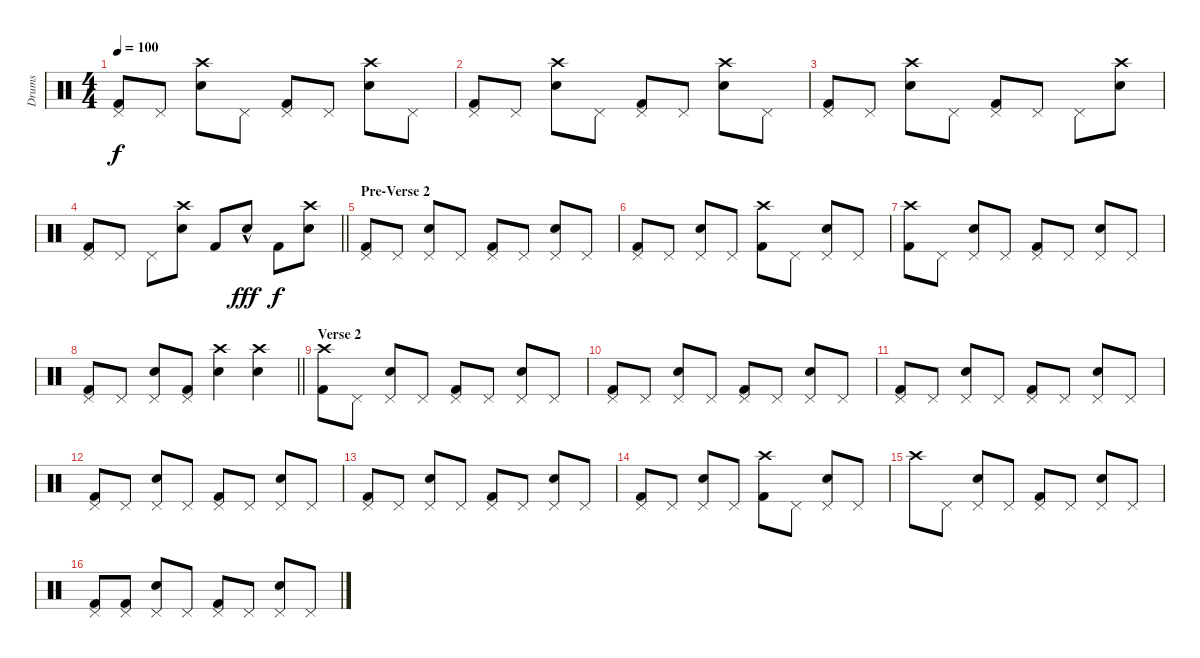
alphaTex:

\track ("Drums" "Drums") {instrument percussion}
\staff {score}
\articulation defaults
\ts (4 4)
\tempo 100
\clef neutral
\ks c
("Pedal Hi-Hat (hit)" "Kick (hit) 2").8{dy f} "Pedal Hi-Hat (hit)".8 ("Crash high (hit)" "Electric Snare (hit)").8 "Pedal Hi-Hat (hit)".8 ("Pedal Hi-Hat (hit)" "Kick (hit) 2").8 "Pedal Hi-Hat (hit)".8 ("Crash high (hit)" "Electric Snare (hit)").8 "Pedal Hi-Hat (hit)".8 |
("Pedal Hi-Hat (hit)" "Kick (hit) 2").8 "Pedal Hi-Hat (hit)".8 ("Crash high (hit)" "Electric Snare (hit)").8 "Pedal Hi-Hat (hit)".8 ("Pedal Hi-Hat (hit)" "Kick (hit) 2").8 "Pedal Hi-Hat (hit)".8 ("Crash high (hit)" "Electric Snare (hit)").8 "Pedal Hi-Hat (hit)".8 |
("Pedal Hi-Hat (hit)" "Kick (hit) 2").8 "Pedal Hi-Hat (hit)".8 ("Crash high (hit)" "Electric Snare (hit)").8 "Pedal Hi-Hat (hit)".8 ("Pedal Hi-Hat (hit)" "Kick (hit) 2").8 "Pedal Hi-Hat (hit)".8 "Pedal Hi-Hat (hit)".8 ("Crash high (hit)" "Electric Snare (hit)").8 |
\barLineRight lightlight
("Pedal Hi-Hat (hit)" "Kick (hit) 2").8 "Pedal Hi-Hat (hit)".8 "Pedal Hi-Hat (hit)".8 ("Crash high (hit)" "Electric Snare (hit)").8 "Kick (hit) 2".8 "Electric Snare (hit)"{hac}.8{dy fff} "Kick (hit) 2".8{dy f} ("Crash high (hit)" "Electric Snare (hit)").8 |
\section ("" "Pre-Verse 2")
("Pedal Hi-Hat (hit)" "Kick (hit) 2").8 "Pedal Hi-Hat (hit)".8 ("Pedal Hi-Hat (hit)" "Electric Snare (hit)").8 "Pedal Hi-Hat (hit)".8 ("Pedal Hi-Hat (hit)" "Kick (hit) 2").8 "Pedal Hi-Hat (hit)".8 ("Pedal Hi-Hat (hit)" "Electric Snare (hit)").8 "Pedal Hi-Hat (hit)".8 |
("Pedal Hi-Hat (hit)" "Kick (hit) 2").8 "Pedal Hi-Hat (hit)".8 ("Pedal Hi-Hat (hit)" "Electric Snare (hit)").8 "Pedal Hi-Hat (hit)".8 ("Crash high (hit)" "Kick (hit) 2").8 "Pedal Hi-Hat (hit)".8 ("Pedal Hi-Hat (hit)" "Electric Snare (hit)").8 "Pedal Hi-Hat (hit)".8 |
("Crash high (hit)" "Kick (hit) 2").8 "Pedal Hi-Hat (hit)".8 ("Pedal Hi-Hat (hit)" "Electric Snare (hit)").8 "Pedal Hi-Hat (hit)".8 ("Pedal Hi-Hat (hit)" "Kick (hit) 2").8 "Pedal Hi-Hat (hit)".8 ("Pedal Hi-Hat (hit)" "Electric Snare (hit)").8 "Pedal Hi-Hat (hit)".8 |
\barLineRight lightlight
("Pedal Hi-Hat (hit)" "Kick (hit) 2").8 "Pedal Hi-Hat (hit)".8 ("Pedal Hi-Hat (hit)" "Electric Snare (hit)").8 ("Pedal Hi-Hat (hit)" "Kick (hit) 2").8 ("Crash high (hit)" "Electric Snare (hit)").4 ("Crash high (hit)" "Electric Snare (hit)").4 |
\section ("" "Verse 2")
("Crash high (hit)" "Kick (hit) 2").8 "Pedal Hi-Hat (hit)".8 ("Pedal Hi-Hat (hit)" "Electric Snare (hit)").8 "Pedal Hi-Hat (hit)".8 ("Pedal Hi-Hat (hit)" "Kick (hit) 2").8 "Pedal Hi-Hat (hit)".8 ("Pedal Hi-Hat (hit)" "Electric Snare (hit)").8 "Pedal Hi-Hat (hit)".8 |
("Pedal Hi-Hat (hit)" "Kick (hit) 2").8 "Pedal Hi-Hat (hit)".8 ("Pedal Hi-Hat (hit)" "Electric Snare (hit)").8 "Pedal Hi-Hat (hit)".8 ("Pedal Hi-Hat (hit)" "Kick (hit) 2").8 "Pedal Hi-Hat (hit)".8 ("Pedal Hi-Hat (hit)" "Electric Snare (hit)").8 "Pedal Hi-Hat (hit)".8 |
("Pedal Hi-Hat (hit)" "Kick (hit) 2").8 "Pedal Hi-Hat (hit)".8 ("Pedal Hi-Hat (hit)" "Electric Snare (hit)").8 "Pedal Hi-Hat (hit)".8 ("Pedal Hi-Hat (hit)" "Kick (hit) 2").8 "Pedal Hi-Hat (hit)".8 ("Pedal Hi-Hat (hit)" "Electric Snare (hit)").8 "Pedal Hi-Hat (hit)".8 |
("Pedal Hi-Hat (hit)" "Kick (hit) 2").8 "Pedal Hi-Hat (hit)".8 ("Pedal Hi-Hat (hit)" "Electric Snare (hit)").8 "Pedal Hi-Hat (hit)".8 ("Pedal Hi-Hat (hit)" "Kick (hit) 2").8 "Pedal Hi-Hat (hit)".8 ("Pedal Hi-Hat (hit)" "Electric Snare (hit)").8 "Pedal Hi-Hat (hit)".8 |
("Pedal Hi-Hat (hit)" "Kick (hit) 2").8 "Pedal Hi-Hat (hit)".8 ("Pedal Hi-Hat (hit)" "Electric Snare (hit)").8 "Pedal Hi-Hat (hit)".8 ("Pedal Hi-Hat (hit)" "Kick (hit) 2").8 "Pedal Hi-Hat (hit)".8 ("Pedal Hi-Hat (hit)" "Electric Snare (hit)").8 "Pedal Hi-Hat (hit)".8 |
("Pedal Hi-Hat (hit)" "Kick (hit) 2").8 "Pedal Hi-Hat (hit)".8 ("Pedal Hi-Hat (hit)" "Electric Snare (hit)").8 "Pedal Hi-Hat (hit)".8 ("Crash high (hit)" "Kick (hit) 2").8 "Pedal Hi-Hat (hit)".8 ("Pedal Hi-Hat (hit)" "Electric Snare (hit)").8 "Pedal Hi-Hat (hit)".8 |
"Crash high (hit)".8 "Pedal Hi-Hat (hit)".8 ("Pedal Hi-Hat (hit)" "Electric Snare (hit)").8 "Pedal Hi-Hat (hit)".8 ("Pedal Hi-Hat (hit)" "Kick (hit) 2").8 "Pedal Hi-Hat (hit)".8 ("Pedal Hi-Hat (hit)" "Electric Snare (hit)").8 "Pedal Hi-Hat (hit)".8 |
("Pedal Hi-Hat (hit)" "Kick (hit) 2").8 ("Pedal Hi-Hat (hit)" "Kick (hit) 2").8 ("Pedal Hi-Hat (hit)" "Electric Snare (hit)").8 "Pedal Hi-Hat (hit)".8 ("Pedal Hi-Hat (hit)" "Kick (hit) 2").8 "Pedal Hi-Hat (hit)".8 ("Pedal Hi-Hat (hit)" "Electric Snare (hit)").8 "Pedal Hi-Hat (hit)".8
